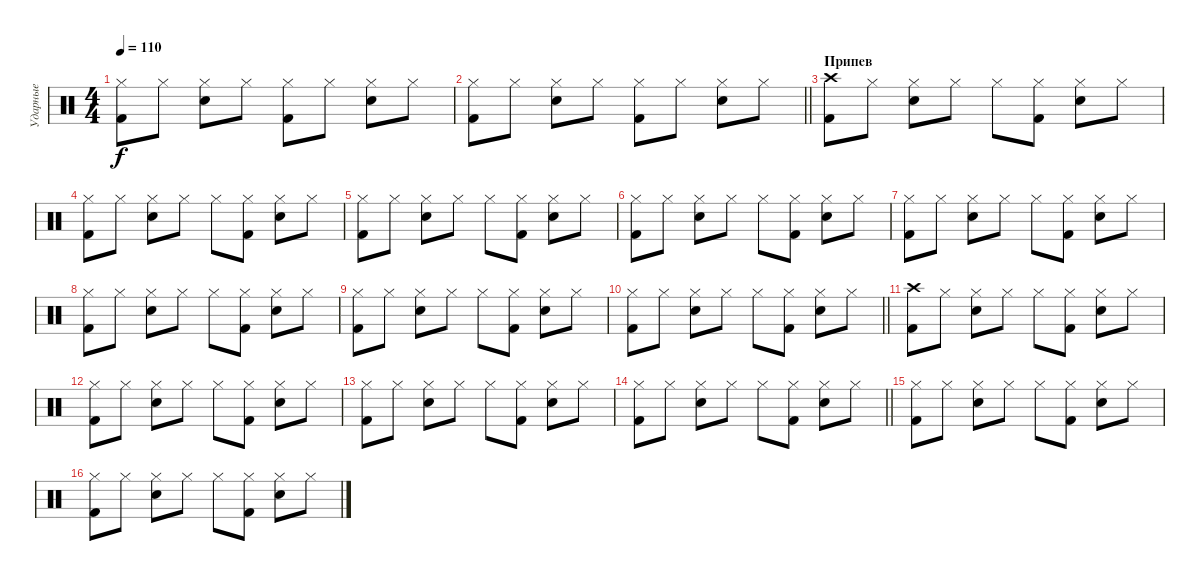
\track ("Ударные" "Ударные") {instrument percussion}
\staff {score}
\articulation defaults
\ts (4 4)
\tempo 110
\clef neutral
\ks c
("Kick (hit) 2" "Hi-Hat (closed)").8{dy f} "Hi-Hat (closed)".8 ("Snare (hit) 2" "Hi-Hat (closed)").8 "Hi-Hat (closed)".8 ("Kick (hit) 2" "Hi-Hat (closed)").8 "Hi-Hat (closed)".8 ("Snare (hit) 2" "Hi-Hat (closed)").8 "Hi-Hat (closed)".8 |
\barLineRight lightlight
("Kick (hit) 2" "Hi-Hat (closed)").8 "Hi-Hat (closed)".8 ("Snare (hit) 2" "Hi-Hat (closed)").8 "Hi-Hat (closed)".8 ("Kick (hit) 2" "Hi-Hat (closed)").8 "Hi-Hat (closed)".8 ("Snare (hit) 2" "Hi-Hat (closed)").8 "Hi-Hat (closed)".8 |
\section ("" "Припев")
("Kick (hit) 2" "Crash high (hit)").8 "Hi-Hat (closed)".8 ("Snare (hit) 2" "Hi-Hat (closed)").8 "Hi-Hat (closed)".8 "Hi-Hat (closed)".8 ("Kick (hit) 2" "Hi-Hat (closed)").8 ("Snare (hit) 2" "Hi-Hat (closed)").8 "Hi-Hat (closed)".8 |
("Kick (hit) 2" "Hi-Hat (closed)").8 "Hi-Hat (closed)".8 ("Snare (hit) 2" "Hi-Hat (closed)").8 "Hi-Hat (closed)".8 "Hi-Hat (closed)".8 ("Kick (hit) 2" "Hi-Hat (closed)").8 ("Snare (hit) 2" "Hi-Hat (closed)").8 "Hi-Hat (closed)".8 |
("Kick (hit) 2" "Hi-Hat (closed)").8 "Hi-Hat (closed)".8 ("Snare (hit) 2" "Hi-Hat (closed)").8 "Hi-Hat (closed)".8 "Hi-Hat (closed)".8 ("Kick (hit) 2" "Hi-Hat (closed)").8 ("Snare (hit) 2" "Hi-Hat (closed)").8 "Hi-Hat (closed)".8 |
("Kick (hit) 2" "Hi-Hat (closed)").8 "Hi-Hat (closed)".8 ("Snare (hit) 2" "Hi-Hat (closed)").8 "Hi-Hat (closed)".8 "Hi-Hat (closed)".8 ("Kick (hit) 2" "Hi-Hat (closed)").8 ("Snare (hit) 2" "Hi-Hat (closed)").8 "Hi-Hat (closed)".8 |
("Kick (hit) 2" "Hi-Hat (closed)").8 "Hi-Hat (closed)".8 ("Snare (hit) 2" "Hi-Hat (closed)").8 "Hi-Hat (closed)".8 "Hi-Hat (closed)".8 ("Kick (hit) 2" "Hi-Hat (closed)").8 ("Snare (hit) 2" "Hi-Hat (closed)").8 "Hi-Hat (closed)".8 |
("Kick (hit) 2" "Hi-Hat (closed)").8 "Hi-Hat (closed)".8 ("Snare (hit) 2" "Hi-Hat (closed)").8 "Hi-Hat (closed)".8 "Hi-Hat (closed)".8 ("Kick (hit) 2" "Hi-Hat (closed)").8 ("Snare (hit) 2" "Hi-Hat (closed)").8 "Hi-Hat (closed)".8 |
("Kick (hit) 2" "Hi-Hat (closed)").8 "Hi-Hat (closed)".8 ("Snare (hit) 2" "Hi-Hat (closed)").8 "Hi-Hat (closed)".8 "Hi-Hat (closed)".8 ("Kick (hit) 2" "Hi-Hat (closed)").8 ("Snare (hit) 2" "Hi-Hat (closed)").8 "Hi-Hat (closed)".8 |
\barLineRight lightlight
("Kick (hit) 2" "Hi-Hat (closed)").8 "Hi-Hat (closed)".8 ("Snare (hit) 2" "Hi-Hat (closed)").8 "Hi-Hat (closed)".8 "Hi-Hat (closed)".8 ("Kick (hit) 2" "Hi-Hat (closed)").8 ("Snare (hit) 2" "Hi-Hat (closed)").8 "Hi-Hat (closed)".8 |
("Kick (hit) 2" "Crash high (hit)").8 "Hi-Hat (closed)".8 ("Snare (hit) 2" "Hi-Hat (closed)").8 "Hi-Hat (closed)".8 "Hi-Hat (closed)".8 ("Kick (hit) 2" "Hi-Hat (closed)").8 ("Snare (hit) 2" "Hi-Hat (closed)").8 "Hi-Hat (closed)".8 |
("Kick (hit) 2" "Hi-Hat (closed)").8 "Hi-Hat (closed)".8 ("Snare (hit) 2" "Hi-Hat (closed)").8 "Hi-Hat (closed)".8 "Hi-Hat (closed)".8 ("Kick (hit) 2" "Hi-Hat (closed)").8 ("Snare (hit) 2" "Hi-Hat (closed)").8 "Hi-Hat (closed)".8 |
("Kick (hit) 2" "Hi-Hat (closed)").8 "Hi-Hat (closed)".8 ("Snare (hit) 2" "Hi-Hat (closed)").8 "Hi-Hat (closed)".8 "Hi-Hat (closed)".8 ("Kick (hit) 2" "Hi-Hat (closed)").8 ("Snare (hit) 2" "Hi-Hat (closed)").8 "Hi-Hat (closed)".8 |
\barLineRight lightlight
("Kick (hit) 2" "Hi-Hat (closed)").8 "Hi-Hat (closed)".8 ("Snare (hit) 2" "Hi-Hat (closed)").8 "Hi-Hat (closed)".8 "Hi-Hat (closed)".8 ("Kick (hit) 2" "Hi-Hat (closed)").8 ("Snare (hit) 2" "Hi-Hat (closed)").8 "Hi-Hat (closed)".8 |
("Kick (hit) 2" "Hi-Hat (closed)").8 "Hi-Hat (closed)".8 ("Snare (hit) 2" "Hi-Hat (closed)").8 "Hi-Hat (closed)".8 "Hi-Hat (closed)".8 ("Kick (hit) 2" "Hi-Hat (closed)").8 ("Snare (hit) 2" "Hi-Hat (closed)").8 "Hi-Hat (closed)".8 |
("Kick (hit) 2" "Hi-Hat (closed)").8 "Hi-Hat (closed)".8 ("Snare (hit) 2" "Hi-Hat (closed)").8 "Hi-Hat (closed)".8 "Hi-Hat (closed)".8 ("Kick (hit) 2" "Hi-Hat (closed)").8 ("Snare (hit) 2" "Hi-Hat (closed)").8 "Hi-Hat (closed)".8
